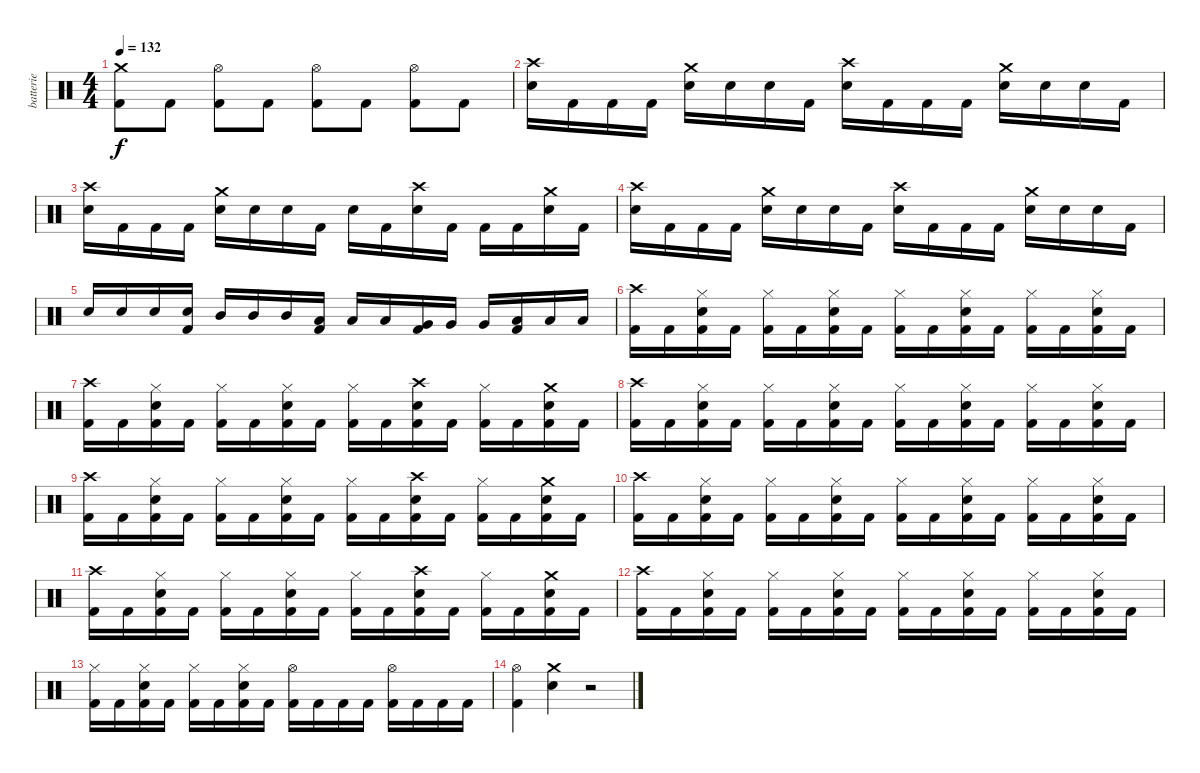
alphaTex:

\track ("batterie" "batterie") {instrument percussion}
\staff {score}
\articulation defaults
\ts (4 4)
\tempo 132
\clef neutral
\ks c
("Crash medium (hit)" "Kick (hit) 2").8{dy f} "Kick (hit) 2".8 ("Kick (hit) 2" "Hi-Hat (open)").8 "Kick (hit) 2".8 ("Kick (hit) 2" "Hi-Hat (open)").8 "Kick (hit) 2".8 ("Kick (hit) 2" "Hi-Hat (open)").8 "Kick (hit) 2".8 |
("Crash high (hit)" "Electric Snare (hit)").16 "Kick (hit) 2".16 "Kick (hit) 2".16 "Kick (hit) 2".16 ("Crash medium (hit)" "Electric Snare (hit)").16 "Electric Snare (hit)".16 "Electric Snare (hit)".16 "Kick (hit) 2".16 ("Crash high (hit)" "Electric Snare (hit)").16 "Kick (hit) 2".16 "Kick (hit) 2".16 "Kick (hit) 2".16 ("Crash medium (hit)" "Electric Snare (hit)").16 "Electric Snare (hit)".16 "Electric Snare (hit)".16 "Kick (hit) 2".16 |
("Crash high (hit)" "Electric Snare (hit)").16 "Kick (hit) 2".16 "Kick (hit) 2".16 "Kick (hit) 2".16 ("Crash medium (hit)" "Electric Snare (hit)").16 "Electric Snare (hit)".16 "Electric Snare (hit)".16 "Kick (hit) 2".16 "Electric Snare (hit)".16 "Kick (hit) 2".16 ("Crash high (hit)" "Electric Snare (hit)").16 "Kick (hit) 2".16 "Kick (hit) 2".16 "Kick (hit) 2".16 ("Crash medium (hit)" "Electric Snare (hit)").16 "Kick (hit) 2".16 |
("Crash high (hit)" "Electric Snare (hit)").16 "Kick (hit) 2".16 "Kick (hit) 2".16 "Kick (hit) 2".16 ("Crash medium (hit)" "Electric Snare (hit)").16 "Electric Snare (hit)".16 "Electric Snare (hit)".16 "Kick (hit) 2".16 ("Crash high (hit)" "Electric Snare (hit)").16 "Kick (hit) 2".16 "Kick (hit) 2".16 "Kick (hit) 2".16 ("Crash medium (hit)" "Electric Snare (hit)").16 "Electric Snare (hit)".16 "Electric Snare (hit)".16 "Kick (hit) 2".16 |
"Electric Snare (hit)".16 "Electric Snare (hit)".16 "Electric Snare (hit)".16 ("Electric Snare (hit)" "Kick (hit) 2").16 "Mid Tom (hit)".16 "Mid Tom (hit)".16 "Mid Tom (hit)".16 ("Low Tom (hit)" "Kick (hit) 2").16 "Low Tom (hit)".16 "Low Tom (hit)".16 ("Very Low Tom (hit)" "Kick (hit) 2").16 "Very Low Tom (hit)".16 "Very Low Tom (hit)".16 ("Low Tom (hit)" "Kick (hit) 2").16 "Low Tom (hit)".16 "Low Tom (hit)".16 |
("Crash high (hit)" "Kick (hit) 2").16 "Kick (hit) 2".16 ("Electric Snare (hit)" "Kick (hit) 2" "Hi-Hat (closed)").16 "Kick (hit) 2".16 ("Kick (hit) 2" "Hi-Hat (closed)").16 "Kick (hit) 2".16 ("Electric Snare (hit)" "Kick (hit) 2" "Hi-Hat (closed)").16 "Kick (hit) 2".16 ("Kick (hit) 2" "Hi-Hat (closed)").16 "Kick (hit) 2".16 ("Electric Snare (hit)" "Kick (hit) 2" "Hi-Hat (closed)").16 "Kick (hit) 2".16 ("Kick (hit) 2" "Hi-Hat (closed)").16 "Kick (hit) 2".16 ("Electric Snare (hit)" "Kick (hit) 2" "Hi-Hat (closed)").16 "Kick (hit) 2".16 |
("Crash high (hit)" "Kick (hit) 2").16 "Kick (hit) 2".16 ("Electric Snare (hit)" "Kick (hit) 2" "Hi-Hat (closed)").16 "Kick (hit) 2".16 ("Kick (hit) 2" "Hi-Hat (closed)").16 "Kick (hit) 2".16 ("Electric Snare (hit)" "Kick (hit) 2" "Hi-Hat (closed)").16 "Kick (hit) 2".16 ("Kick (hit) 2" "Hi-Hat (closed)").16 "Kick (hit) 2".16 ("Crash high (hit)" "Electric Snare (hit)" "Kick (hit) 2").16 "Kick (hit) 2".16 ("Kick (hit) 2" "Hi-Hat (closed)").16 "Kick (hit) 2".16 ("Crash medium (hit)" "Electric Snare (hit)" "Kick (hit) 2").16 "Kick (hit) 2".16 |
("Crash high (hit)" "Kick (hit) 2").16 "Kick (hit) 2".16 ("Electric Snare (hit)" "Kick (hit) 2" "Hi-Hat (closed)").16 "Kick (hit) 2".16 ("Kick (hit) 2" "Hi-Hat (closed)").16 "Kick (hit) 2".16 ("Electric Snare (hit)" "Kick (hit) 2" "Hi-Hat (closed)").16 "Kick (hit) 2".16 ("Kick (hit) 2" "Hi-Hat (closed)").16 "Kick (hit) 2".16 ("Electric Snare (hit)" "Kick (hit) 2" "Hi-Hat (closed)").16 "Kick (hit) 2".16 ("Kick (hit) 2" "Hi-Hat (closed)").16 "Kick (hit) 2".16 ("Electric Snare (hit)" "Kick (hit) 2" "Hi-Hat (closed)").16 "Kick (hit) 2".16 |
("Crash high (hit)" "Kick (hit) 2").16 "Kick (hit) 2".16 ("Electric Snare (hit)" "Kick (hit) 2" "Hi-Hat (closed)").16 "Kick (hit) 2".16 ("Kick (hit) 2" "Hi-Hat (closed)").16 "Kick (hit) 2".16 ("Electric Snare (hit)" "Kick (hit) 2" "Hi-Hat (closed)").16 "Kick (hit) 2".16 ("Kick (hit) 2" "Hi-Hat (closed)").16 "Kick (hit) 2".16 ("Crash high (hit)" "Electric Snare (hit)" "Kick (hit) 2").16 "Kick (hit) 2".16 ("Kick (hit) 2" "Hi-Hat (closed)").16 "Kick (hit) 2".16 ("Crash medium (hit)" "Electric Snare (hit)" "Kick (hit) 2").16 "Kick (hit) 2".16 |
("Crash high (hit)" "Kick (hit) 2").16 "Kick (hit) 2".16 ("Electric Snare (hit)" "Kick (hit) 2" "Hi-Hat (closed)").16 "Kick (hit) 2".16 ("Kick (hit) 2" "Hi-Hat (closed)").16 "Kick (hit) 2".16 ("Electric Snare (hit)" "Kick (hit) 2" "Hi-Hat (closed)").16 "Kick (hit) 2".16 ("Kick (hit) 2" "Hi-Hat (closed)").16 "Kick (hit) 2".16 ("Electric Snare (hit)" "Kick (hit) 2" "Hi-Hat (closed)").16 "Kick (hit) 2".16 ("Kick (hit) 2" "Hi-Hat (closed)").16 "Kick (hit) 2".16 ("Electric Snare (hit)" "Kick (hit) 2" "Hi-Hat (closed)").16 "Kick (hit) 2".16 |
("Crash high (hit)" "Kick (hit) 2").16 "Kick (hit) 2".16 ("Electric Snare (hit)" "Kick (hit) 2" "Hi-Hat (closed)").16 "Kick (hit) 2".16 ("Kick (hit) 2" "Hi-Hat (closed)").16 "Kick (hit) 2".16 ("Electric Snare (hit)" "Kick (hit) 2" "Hi-Hat (closed)").16 "Kick (hit) 2".16 ("Kick (hit) 2" "Hi-Hat (closed)").16 "Kick (hit) 2".16 ("Crash high (hit)" "Electric Snare (hit)" "Kick (hit) 2").16 "Kick (hit) 2".16 ("Kick (hit) 2" "Hi-Hat (closed)").16 "Kick (hit) 2".16 ("Crash medium (hit)" "Electric Snare (hit)" "Kick (hit) 2").16 "Kick (hit) 2".16 |
("Crash high (hit)" "Kick (hit) 2").16 "Kick (hit) 2".16 ("Electric Snare (hit)" "Kick (hit) 2" "Hi-Hat (closed)").16 "Kick (hit) 2".16 ("Kick (hit) 2" "Hi-Hat (closed)").16 "Kick (hit) 2".16 ("Electric Snare (hit)" "Kick (hit) 2" "Hi-Hat (closed)").16 "Kick (hit) 2".16 ("Kick (hit) 2" "Hi-Hat (closed)").16 "Kick (hit) 2".16 ("Electric Snare (hit)" "Kick (hit) 2" "Hi-Hat (closed)").16 "Kick (hit) 2".16 ("Kick (hit) 2" "Hi-Hat (closed)").16 "Kick (hit) 2".16 ("Electric Snare (hit)" "Kick (hit) 2" "Hi-Hat (closed)").16 "Kick (hit) 2".16 |
("Kick (hit) 2" "Hi-Hat (closed)").16 "Kick (hit) 2".16 ("Electric Snare (hit)" "Kick (hit) 2" "Hi-Hat (closed)").16 "Kick (hit) 2".16 ("Kick (hit) 2" "Hi-Hat (closed)").16 "Kick (hit) 2".16 ("Electric Snare (hit)" "Kick (hit) 2" "Hi-Hat (closed)").16 "Kick (hit) 2".16 ("Kick (hit) 2" "Hi-Hat (open)").16 "Kick (hit) 2".16 "Kick (hit) 2".16 "Kick (hit) 2".16 ("Kick (hit) 2" "Hi-Hat (open)").16 "Kick (hit) 2".16 "Kick (hit) 2".16 "Kick (hit) 2".16 |
("Kick (hit) 2" "Hi-Hat (open)").4 ("Crash medium (hit)" "Electric Snare (hit)").4 r.2
